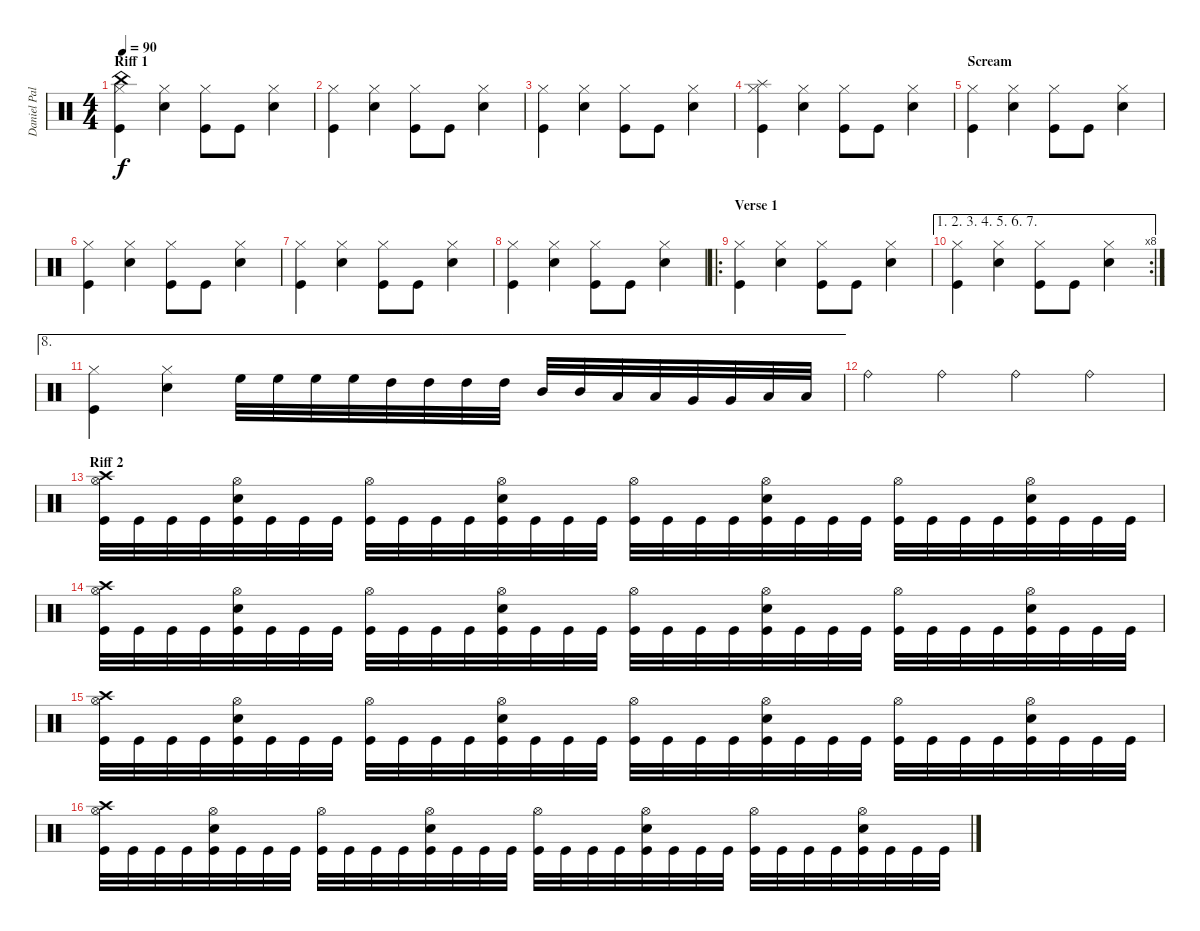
\track ("Daniel Pal" "Daniel Pal") {instrument percussion}
\staff {score}
\articulation defaults
\ts (4 4)
\section ("" "Riff 1")
\tempo 90
\clef neutral
\ks c
("China (hit)" "Hi-Hat (closed)" "Kick (hit)").4{dy f} ("Hi-Hat (closed)" "Electric Snare (hit)").4 ("Hi-Hat (closed)" "Kick (hit)").8 "Kick (hit)".8 ("Hi-Hat (closed)" "Electric Snare (hit)").4 |
("Hi-Hat (closed)" "Kick (hit)").4 ("Hi-Hat (closed)" "Electric Snare (hit)").4 ("Hi-Hat (closed)" "Kick (hit)").8 "Kick (hit)".8 ("Hi-Hat (closed)" "Electric Snare (hit)").4 |
("Hi-Hat (closed)" "Kick (hit)").4 ("Hi-Hat (closed)" "Electric Snare (hit)").4 ("Hi-Hat (closed)" "Kick (hit)").8 "Kick (hit)".8 ("Hi-Hat (closed)" "Electric Snare (hit)").4 |
("Splash (hit)" "Hi-Hat (closed)" "Kick (hit)").4 ("Hi-Hat (closed)" "Electric Snare (hit)").4 ("Hi-Hat (closed)" "Kick (hit)").8 "Kick (hit)".8 ("Hi-Hat (closed)" "Electric Snare (hit)").4 |
\section ("" "Scream")
("Hi-Hat (closed)" "Kick (hit)").4 ("Hi-Hat (closed)" "Electric Snare (hit)").4 ("Hi-Hat (closed)" "Kick (hit)").8 "Kick (hit)".8 ("Hi-Hat (closed)" "Electric Snare (hit)").4 |
("Hi-Hat (closed)" "Kick (hit)").4 ("Hi-Hat (closed)" "Electric Snare (hit)").4 ("Hi-Hat (closed)" "Kick (hit)").8 "Kick (hit)".8 ("Hi-Hat (closed)" "Electric Snare (hit)").4 |
("Hi-Hat (closed)" "Kick (hit)").4 ("Hi-Hat (closed)" "Electric Snare (hit)").4 ("Hi-Hat (closed)" "Kick (hit)").8 "Kick (hit)".8 ("Hi-Hat (closed)" "Electric Snare (hit)").4 |
("Hi-Hat (closed)" "Kick (hit)").4 ("Hi-Hat (closed)" "Electric Snare (hit)").4 ("Hi-Hat (closed)" "Kick (hit)").8 "Kick (hit)".8 ("Hi-Hat (closed)" "Electric Snare (hit)").4 |
\ro
\section ("" "Verse 1")
("Hi-Hat (closed)" "Kick (hit)").4 ("Hi-Hat (closed)" "Electric Snare (hit)").4 ("Hi-Hat (closed)" "Kick (hit)").8 "Kick (hit)".8 ("Hi-Hat (closed)" "Electric Snare (hit)").4 |
\ae (1 2 3 4 5 6 7)
\rc 8
("Hi-Hat (closed)" "Kick (hit)").4 ("Hi-Hat (closed)" "Electric Snare (hit)").4 ("Hi-Hat (closed)" "Kick (hit)").8 "Kick (hit)".8 ("Hi-Hat (closed)" "Electric Snare (hit)").4 |
\ae 8
("Hi-Hat (closed)" "Kick (hit)").4 ("Hi-Hat (closed)" "Electric Snare (hit)").4 "High Floor Tom (hit)".32 "High Floor Tom (hit)".32 "High Floor Tom (hit)".32 "High Floor Tom (hit)".32 "High Tom (hit)".32 "High Tom (hit)".32 "High Tom (hit)".32 "High Tom (hit)".32 "Mid Tom (hit)".32 "Mid Tom (hit)".32 "Low Tom (hit)".32 "Low Tom (hit)".32 "Very Low Tom (hit)".32 "Very Low Tom (hit)".32 "Low Floor Tom (hit)".32 "Low Floor Tom (hit)".32 |
"Ride (bell)".4 "Ride (bell)".4 "Ride (bell)".4 "Ride (bell)".4 |
\section ("" "Riff 2")
("Crash high (hit)" "Hi-Hat (open)" "Kick (hit)").32 "Kick (hit)".32 "Kick (hit)".32 "Kick (hit)".32 ("Hi-Hat (open)" "Electric Snare (hit)" "Kick (hit)").32 "Kick (hit)".32 "Kick (hit)".32 "Kick (hit)".32 ("Hi-Hat (open)" "Kick (hit)").32 "Kick (hit)".32 "Kick (hit)".32 "Kick (hit)".32 ("Hi-Hat (open)" "Electric Snare (hit)" "Kick (hit)").32 "Kick (hit)".32 "Kick (hit)".32 "Kick (hit)".32 ("Hi-Hat (open)" "Kick (hit)").32 "Kick (hit)".32 "Kick (hit)".32 "Kick (hit)".32 ("Hi-Hat (open)" "Electric Snare (hit)" "Kick (hit)").32 "Kick (hit)".32 "Kick (hit)".32 "Kick (hit)".32 ("Hi-Hat (open)" "Kick (hit)").32 "Kick (hit)".32 "Kick (hit)".32 "Kick (hit)".32 ("Hi-Hat (open)" "Electric Snare (hit)" "Kick (hit)").32 "Kick (hit)".32 "Kick (hit)".32 "Kick (hit)".32 |
("Crash high (hit)" "Hi-Hat (open)" "Kick (hit)").32 "Kick (hit)".32 "Kick (hit)".32 "Kick (hit)".32 ("Hi-Hat (open)" "Electric Snare (hit)" "Kick (hit)").32 "Kick (hit)".32 "Kick (hit)".32 "Kick (hit)".32 ("Hi-Hat (open)" "Kick (hit)").32 "Kick (hit)".32 "Kick (hit)".32 "Kick (hit)".32 ("Hi-Hat (open)" "Electric Snare (hit)" "Kick (hit)").32 "Kick (hit)".32 "Kick (hit)".32 "Kick (hit)".32 ("Hi-Hat (open)" "Kick (hit)").32 "Kick (hit)".32 "Kick (hit)".32 "Kick (hit)".32 ("Hi-Hat (open)" "Electric Snare (hit)" "Kick (hit)").32 "Kick (hit)".32 "Kick (hit)".32 "Kick (hit)".32 ("Hi-Hat (open)" "Kick (hit)").32 "Kick (hit)".32 "Kick (hit)".32 "Kick (hit)".32 ("Hi-Hat (open)" "Electric Snare (hit)" "Kick (hit)").32 "Kick (hit)".32 "Kick (hit)".32 "Kick (hit)".32 |
("Crash high (hit)" "Hi-Hat (open)" "Kick (hit)").32 "Kick (hit)".32 "Kick (hit)".32 "Kick (hit)".32 ("Hi-Hat (open)" "Electric Snare (hit)" "Kick (hit)").32 "Kick (hit)".32 "Kick (hit)".32 "Kick (hit)".32 ("Hi-Hat (open)" "Kick (hit)").32 "Kick (hit)".32 "Kick (hit)".32 "Kick (hit)".32 ("Hi-Hat (open)" "Electric Snare (hit)" "Kick (hit)").32 "Kick (hit)".32 "Kick (hit)".32 "Kick (hit)".32 ("Hi-Hat (open)" "Kick (hit)").32 "Kick (hit)".32 "Kick (hit)".32 "Kick (hit)".32 ("Hi-Hat (open)" "Electric Snare (hit)" "Kick (hit)").32 "Kick (hit)".32 "Kick (hit)".32 "Kick (hit)".32 ("Hi-Hat (open)" "Kick (hit)").32 "Kick (hit)".32 "Kick (hit)".32 "Kick (hit)".32 ("Hi-Hat (open)" "Electric Snare (hit)" "Kick (hit)").32 "Kick (hit)".32 "Kick (hit)".32 "Kick (hit)".32 |
("Crash high (hit)" "Hi-Hat (open)" "Kick (hit)").32 "Kick (hit)".32 "Kick (hit)".32 "Kick (hit)".32 ("Hi-Hat (open)" "Electric Snare (hit)" "Kick (hit)").32 "Kick (hit)".32 "Kick (hit)".32 "Kick (hit)".32 ("Hi-Hat (open)" "Kick (hit)").32 "Kick (hit)".32 "Kick (hit)".32 "Kick (hit)".32 ("Hi-Hat (open)" "Electric Snare (hit)" "Kick (hit)").32 "Kick (hit)".32 "Kick (hit)".32 "Kick (hit)".32 ("Hi-Hat (open)" "Kick (hit)").32 "Kick (hit)".32 "Kick (hit)".32 "Kick (hit)".32 ("Hi-Hat (open)" "Electric Snare (hit)" "Kick (hit)").32 "Kick (hit)".32 "Kick (hit)".32 "Kick (hit)".32 ("Hi-Hat (open)" "Kick (hit)").32 "Kick (hit)".32 "Kick (hit)".32 "Kick (hit)".32 ("Hi-Hat (open)" "Electric Snare (hit)" "Kick (hit)").32 "Kick (hit)".32 "Kick (hit)".32 "Kick (hit)".32
